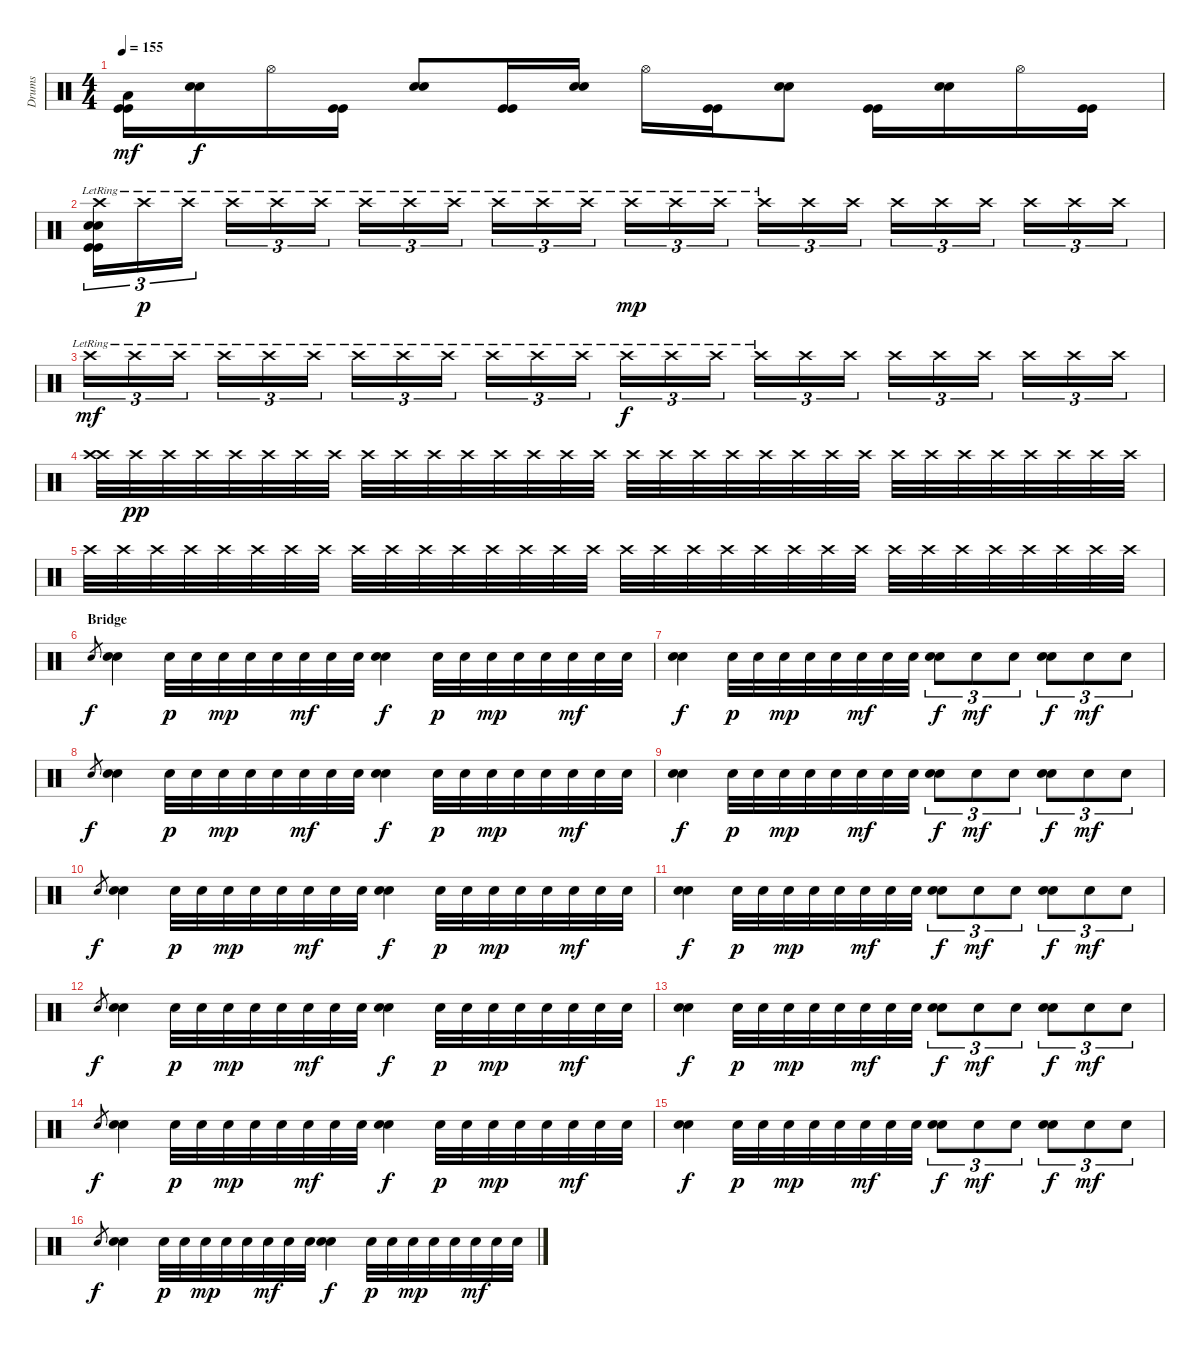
\track ("Drums" "Drums") {instrument percussion}
\staff {score}
\articulation defaults
\ts (4 4)
\tempo 155
\clef neutral
\ks c
("Low Tom (hit)" "Kick (hit)" "Kick (hit)").16{dy mf} ("Snare (hit) 2" "Snare (hit) 2").16{dy f} "Hi-Hat (open)".16 ("Kick (hit)" "Kick (hit)").16 ("Snare (hit) 2" "Snare (hit) 2").8 ("Kick (hit)" "Kick (hit)").16 ("Snare (hit) 2" "Snare (hit) 2").16 "Hi-Hat (open)".16 ("Kick (hit)" "Kick (hit)").16 ("Snare (hit) 2" "Snare (hit) 2").8 ("Kick (hit)" "Kick (hit)").16 ("Snare (hit) 2" "Snare (hit) 2").16 "Hi-Hat (open)".16 ("Kick (hit)" "Kick (hit)").16 |
("Crash high (hit)"{lr} "Snare (hit) 2" "Snare (hit) 2" "Kick (hit)" "Kick (hit)").16{tu (3 2)} "Crash high (hit)"{lr}.16{tu (3 2) dy p} "Crash high (hit)"{lr}.16{tu (3 2)} "Crash high (hit)"{lr}.16{tu (3 2)} "Crash high (hit)"{lr}.16{tu (3 2)} "Crash high (hit)"{lr}.16{tu (3 2)} "Crash high (hit)"{lr}.16{tu (3 2)} "Crash high (hit)"{lr}.16{tu (3 2)} "Crash high (hit)"{lr}.16{tu (3 2)} "Crash high (hit)"{lr}.16{tu (3 2)} "Crash high (hit)"{lr}.16{tu (3 2)} "Crash high (hit)"{lr}.16{tu (3 2)} "Crash high (hit)"{lr}.16{tu (3 2) dy mp} "Crash high (hit)"{lr}.16{tu (3 2)} "Crash high (hit)"{lr}.16{tu (3 2)} "Crash high (hit)"{lr}.16{tu (3 2)} "Crash high (hit)".16{tu (3 2)} "Crash high (hit)".16{tu (3 2)} "Crash high (hit)".16{tu (3 2)} "Crash high (hit)".16{tu (3 2)} "Crash high (hit)".16{tu (3 2)} "Crash high (hit)".16{tu (3 2)} "Crash high (hit)".16{tu (3 2)} "Crash high (hit)".16{tu (3 2)} |
"Crash high (hit)"{lr}.16{tu (3 2) dy mf} "Crash high (hit)"{lr}.16{tu (3 2)} "Crash high (hit)"{lr}.16{tu (3 2)} "Crash high (hit)"{lr}.16{tu (3 2)} "Crash high (hit)"{lr}.16{tu (3 2)} "Crash high (hit)"{lr}.16{tu (3 2)} "Crash high (hit)"{lr}.16{tu (3 2)} "Crash high (hit)"{lr}.16{tu (3 2)} "Crash high (hit)"{lr}.16{tu (3 2)} "Crash high (hit)"{lr}.16{tu (3 2)} "Crash high (hit)"{lr}.16{tu (3 2)} "Crash high (hit)"{lr}.16{tu (3 2)} "Crash high (hit)"{lr}.16{tu (3 2) dy f} "Crash high (hit)"{lr}.16{tu (3 2)} "Crash high (hit)"{lr}.16{tu (3 2)} "Crash high (hit)"{lr}.16{tu (3 2)} "Crash high (hit)".16{tu (3 2)} "Crash high (hit)".16{tu (3 2)} "Crash high (hit)".16{tu (3 2)} "Crash high (hit)".16{tu (3 2)} "Crash high (hit)".16{tu (3 2)} "Crash high (hit)".16{tu (3 2)} "Crash high (hit)".16{tu (3 2)} "Crash high (hit)".16{tu (3 2)} |
("Crash high (hit)" "Crash high (hit)").32{volume 8} "Crash high (hit)".32{dy pp} "Crash high (hit)".32 "Crash high (hit)".32 "Crash high (hit)".32 "Crash high (hit)".32 "Crash high (hit)".32 "Crash high (hit)".32 "Crash high (hit)".32 "Crash high (hit)".32 "Crash high (hit)".32 "Crash high (hit)".32 "Crash high (hit)".32 "Crash high (hit)".32 "Crash high (hit)".32 "Crash high (hit)".32 "Crash high (hit)".32 "Crash high (hit)".32 "Crash high (hit)".32 "Crash high (hit)".32 "Crash high (hit)".32 "Crash high (hit)".32 "Crash high (hit)".32 "Crash high (hit)".32 "Crash high (hit)".32 "Crash high (hit)".32 "Crash high (hit)".32 "Crash high (hit)".32 "Crash high (hit)".32 "Crash high (hit)".32 "Crash high (hit)".32 "Crash high (hit)".32 |
"Crash high (hit)".32 "Crash high (hit)".32 "Crash high (hit)".32 "Crash high (hit)".32 "Crash high (hit)".32 "Crash high (hit)".32 "Crash high (hit)".32 "Crash high (hit)".32 "Crash high (hit)".32 "Crash high (hit)".32 "Crash high (hit)".32 "Crash high (hit)".32 "Crash high (hit)".32 "Crash high (hit)".32 "Crash high (hit)".32 "Crash high (hit)".32 "Crash high (hit)".32 "Crash high (hit)".32 "Crash high (hit)".32 "Crash high (hit)".32 "Crash high (hit)".32 "Crash high (hit)".32 "Crash high (hit)".32 "Crash high (hit)".32 "Crash high (hit)".32 "Crash high (hit)".32 "Crash high (hit)".32 "Crash high (hit)".32 "Crash high (hit)".32 "Crash high (hit)".32 "Crash high (hit)".32 "Crash high (hit)".32 |
\section ("" "Bridge")
"Snare (hit) 2".8{gr dy f} ("Snare (hit) 2" "Snare (hit) 2").4{volume 9} "Snare (hit) 2".32{dy p} "Snare (hit) 2".32 "Snare (hit) 2".32{dy mp} "Snare (hit) 2".32 "Snare (hit) 2".32 "Snare (hit) 2".32{dy mf} "Snare (hit) 2".32 "Snare (hit) 2".32 ("Snare (hit) 2" "Snare (hit) 2").4{dy f} "Snare (hit) 2".32{dy p} "Snare (hit) 2".32 "Snare (hit) 2".32{dy mp} "Snare (hit) 2".32 "Snare (hit) 2".32 "Snare (hit) 2".32{dy mf} "Snare (hit) 2".32 "Snare (hit) 2".32 |
("Snare (hit) 2" "Snare (hit) 2").4{dy f} "Snare (hit) 2".32{dy p} "Snare (hit) 2".32 "Snare (hit) 2".32{dy mp} "Snare (hit) 2".32 "Snare (hit) 2".32 "Snare (hit) 2".32{dy mf} "Snare (hit) 2".32 "Snare (hit) 2".32 ("Snare (hit) 2" "Snare (hit) 2").8{tu (3 2) dy f} "Snare (hit) 2".8{tu (3 2) dy mf} "Snare (hit) 2".8{tu (3 2)} ("Snare (hit) 2" "Snare (hit) 2").8{tu (3 2) dy f} "Snare (hit) 2".8{tu (3 2) dy mf} "Snare (hit) 2".8{tu (3 2)} |
"Snare (hit) 2".8{gr dy f} ("Snare (hit) 2" "Snare (hit) 2").4 "Snare (hit) 2".32{dy p} "Snare (hit) 2".32 "Snare (hit) 2".32{dy mp} "Snare (hit) 2".32 "Snare (hit) 2".32 "Snare (hit) 2".32{dy mf} "Snare (hit) 2".32 "Snare (hit) 2".32 ("Snare (hit) 2" "Snare (hit) 2").4{dy f} "Snare (hit) 2".32{dy p} "Snare (hit) 2".32 "Snare (hit) 2".32{dy mp} "Snare (hit) 2".32 "Snare (hit) 2".32 "Snare (hit) 2".32{dy mf} "Snare (hit) 2".32 "Snare (hit) 2".32 |
("Snare (hit) 2" "Snare (hit) 2").4{dy f} "Snare (hit) 2".32{dy p} "Snare (hit) 2".32 "Snare (hit) 2".32{dy mp} "Snare (hit) 2".32 "Snare (hit) 2".32 "Snare (hit) 2".32{dy mf} "Snare (hit) 2".32 "Snare (hit) 2".32 ("Snare (hit) 2" "Snare (hit) 2").8{tu (3 2) dy f} "Snare (hit) 2".8{tu (3 2) dy mf} "Snare (hit) 2".8{tu (3 2)} ("Snare (hit) 2" "Snare (hit) 2").8{tu (3 2) dy f} "Snare (hit) 2".8{tu (3 2) dy mf} "Snare (hit) 2".8{tu (3 2)} |
"Snare (hit) 2".8{gr dy f} ("Snare (hit) 2" "Snare (hit) 2").4 "Snare (hit) 2".32{dy p} "Snare (hit) 2".32 "Snare (hit) 2".32{dy mp} "Snare (hit) 2".32 "Snare (hit) 2".32 "Snare (hit) 2".32{dy mf} "Snare (hit) 2".32 "Snare (hit) 2".32 ("Snare (hit) 2" "Snare (hit) 2").4{dy f} "Snare (hit) 2".32{dy p} "Snare (hit) 2".32 "Snare (hit) 2".32{dy mp} "Snare (hit) 2".32 "Snare (hit) 2".32 "Snare (hit) 2".32{dy mf} "Snare (hit) 2".32 "Snare (hit) 2".32 |
("Snare (hit) 2" "Snare (hit) 2").4{dy f} "Snare (hit) 2".32{dy p} "Snare (hit) 2".32 "Snare (hit) 2".32{dy mp} "Snare (hit) 2".32 "Snare (hit) 2".32 "Snare (hit) 2".32{dy mf} "Snare (hit) 2".32 "Snare (hit) 2".32 ("Snare (hit) 2" "Snare (hit) 2").8{tu (3 2) dy f} "Snare (hit) 2".8{tu (3 2) dy mf} "Snare (hit) 2".8{tu (3 2)} ("Snare (hit) 2" "Snare (hit) 2").8{tu (3 2) dy f} "Snare (hit) 2".8{tu (3 2) dy mf} "Snare (hit) 2".8{tu (3 2)} |
"Snare (hit) 2".8{gr dy f} ("Snare (hit) 2" "Snare (hit) 2").4 "Snare (hit) 2".32{dy p} "Snare (hit) 2".32 "Snare (hit) 2".32{dy mp} "Snare (hit) 2".32 "Snare (hit) 2".32 "Snare (hit) 2".32{dy mf} "Snare (hit) 2".32 "Snare (hit) 2".32 ("Snare (hit) 2" "Snare (hit) 2").4{dy f} "Snare (hit) 2".32{dy p} "Snare (hit) 2".32 "Snare (hit) 2".32{dy mp} "Snare (hit) 2".32 "Snare (hit) 2".32 "Snare (hit) 2".32{dy mf} "Snare (hit) 2".32 "Snare (hit) 2".32 |
("Snare (hit) 2" "Snare (hit) 2").4{dy f} "Snare (hit) 2".32{dy p} "Snare (hit) 2".32 "Snare (hit) 2".32{dy mp} "Snare (hit) 2".32 "Snare (hit) 2".32 "Snare (hit) 2".32{dy mf} "Snare (hit) 2".32 "Snare (hit) 2".32 ("Snare (hit) 2" "Snare (hit) 2").8{tu (3 2) dy f} "Snare (hit) 2".8{tu (3 2) dy mf} "Snare (hit) 2".8{tu (3 2)} ("Snare (hit) 2" "Snare (hit) 2").8{tu (3 2) dy f} "Snare (hit) 2".8{tu (3 2) dy mf} "Snare (hit) 2".8{tu (3 2)} |
"Snare (hit) 2".8{gr dy f} ("Snare (hit) 2" "Snare (hit) 2").4 "Snare (hit) 2".32{dy p} "Snare (hit) 2".32 "Snare (hit) 2".32{dy mp} "Snare (hit) 2".32 "Snare (hit) 2".32 "Snare (hit) 2".32{dy mf} "Snare (hit) 2".32 "Snare (hit) 2".32 ("Snare (hit) 2" "Snare (hit) 2").4{dy f} "Snare (hit) 2".32{dy p} "Snare (hit) 2".32 "Snare (hit) 2".32{dy mp} "Snare (hit) 2".32 "Snare (hit) 2".32 "Snare (hit) 2".32{dy mf} "Snare (hit) 2".32 "Snare (hit) 2".32 |
("Snare (hit) 2" "Snare (hit) 2").4{dy f} "Snare (hit) 2".32{dy p} "Snare (hit) 2".32 "Snare (hit) 2".32{dy mp} "Snare (hit) 2".32 "Snare (hit) 2".32 "Snare (hit) 2".32{dy mf} "Snare (hit) 2".32 "Snare (hit) 2".32 ("Snare (hit) 2" "Snare (hit) 2").8{tu (3 2) dy f} "Snare (hit) 2".8{tu (3 2) dy mf} "Snare (hit) 2".8{tu (3 2)} ("Snare (hit) 2" "Snare (hit) 2").8{tu (3 2) dy f} "Snare (hit) 2".8{tu (3 2) dy mf} "Snare (hit) 2".8{tu (3 2)} |
"Snare (hit) 2".8{gr dy f} ("Snare (hit) 2" "Snare (hit) 2").4 "Snare (hit) 2".32{dy p} "Snare (hit) 2".32 "Snare (hit) 2".32{dy mp} "Snare (hit) 2".32 "Snare (hit) 2".32 "Snare (hit) 2".32{dy mf} "Snare (hit) 2".32 "Snare (hit) 2".32 ("Snare (hit) 2" "Snare (hit) 2").4{dy f} "Snare (hit) 2".32{dy p} "Snare (hit) 2".32 "Snare (hit) 2".32{dy mp} "Snare (hit) 2".32 "Snare (hit) 2".32 "Snare (hit) 2".32{dy mf} "Snare (hit) 2".32 "Snare (hit) 2".32
